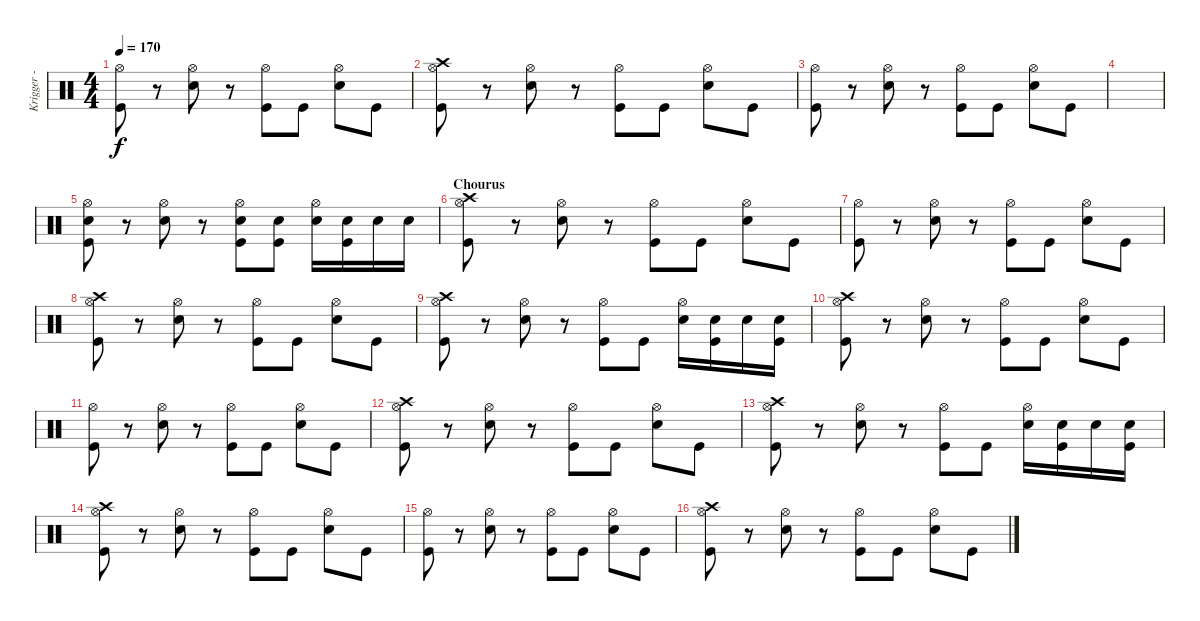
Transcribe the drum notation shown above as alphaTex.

\track ("Krigger - Drums" "Krigger - ") {instrument percussion}
\staff {score}
\articulation defaults
\ts (4 4)
\tempo 170
\clef neutral
\ks c
("Hi-Hat (open)" "Kick (hit)").8{dy f} r.8 ("Hi-Hat (open)" "Snare (hit) 2").8 r.8 ("Hi-Hat (open)" "Kick (hit)").8 "Kick (hit)".8 ("Hi-Hat (open)" "Snare (hit) 2").8 "Kick (hit)".8 |
("Hi-Hat (open)" "Crash high (hit)" "Kick (hit)").8 r.8 ("Hi-Hat (open)" "Snare (hit) 2").8 r.8 ("Hi-Hat (open)" "Kick (hit)").8 "Kick (hit)".8 ("Hi-Hat (open)" "Snare (hit) 2").8 "Kick (hit)".8 |
("Hi-Hat (open)" "Kick (hit)").8 r.8 ("Hi-Hat (open)" "Snare (hit) 2").8 r.8 ("Hi-Hat (open)" "Kick (hit)").8 "Kick (hit)".8 ("Hi-Hat (open)" "Snare (hit) 2").8 "Kick (hit)".8 |
|
("Hi-Hat (open)" "Snare (hit) 2" "Kick (hit)").8 r.8 ("Hi-Hat (open)" "Snare (hit) 2").8 r.8 ("Hi-Hat (open)" "Snare (hit) 2" "Kick (hit)").8 ("Snare (hit) 2" "Kick (hit)").8 ("Hi-Hat (open)" "Snare (hit) 2").16 ("Snare (hit) 2" "Kick (hit)").16 "Snare (hit) 2".16 "Snare (hit) 2".16 |
\section ("" "Chourus")
("Hi-Hat (open)" "Crash high (hit)" "Kick (hit)").8 r.8 ("Hi-Hat (open)" "Snare (hit) 2").8 r.8 ("Hi-Hat (open)" "Kick (hit)").8 "Kick (hit)".8 ("Hi-Hat (open)" "Snare (hit) 2").8 "Kick (hit)".8 |
("Hi-Hat (open)" "Kick (hit)").8 r.8 ("Hi-Hat (open)" "Snare (hit) 2").8 r.8 ("Hi-Hat (open)" "Kick (hit)").8 "Kick (hit)".8 ("Hi-Hat (open)" "Snare (hit) 2").8 "Kick (hit)".8 |
("Hi-Hat (open)" "Crash high (hit)" "Kick (hit)").8 r.8 ("Hi-Hat (open)" "Snare (hit) 2").8 r.8 ("Hi-Hat (open)" "Kick (hit)").8 "Kick (hit)".8 ("Hi-Hat (open)" "Snare (hit) 2").8 "Kick (hit)".8 |
("Hi-Hat (open)" "Crash high (hit)" "Kick (hit)").8 r.8 ("Hi-Hat (open)" "Snare (hit) 2").8 r.8 ("Hi-Hat (open)" "Kick (hit)").8 "Kick (hit)".8 ("Hi-Hat (open)" "Snare (hit) 2").16 ("Snare (hit) 2" "Kick (hit)").16 "Snare (hit) 2".16 ("Snare (hit) 2" "Kick (hit)").16 |
("Hi-Hat (open)" "Crash high (hit)" "Kick (hit)").8 r.8 ("Hi-Hat (open)" "Snare (hit) 2").8 r.8 ("Hi-Hat (open)" "Kick (hit)").8 "Kick (hit)".8 ("Hi-Hat (open)" "Snare (hit) 2").8 "Kick (hit)".8 |
("Hi-Hat (open)" "Kick (hit)").8 r.8 ("Hi-Hat (open)" "Snare (hit) 2").8 r.8 ("Hi-Hat (open)" "Kick (hit)").8 "Kick (hit)".8 ("Hi-Hat (open)" "Snare (hit) 2").8 "Kick (hit)".8 |
("Hi-Hat (open)" "Crash high (hit)" "Kick (hit)").8 r.8 ("Hi-Hat (open)" "Snare (hit) 2").8 r.8 ("Hi-Hat (open)" "Kick (hit)").8 "Kick (hit)".8 ("Hi-Hat (open)" "Snare (hit) 2").8 "Kick (hit)".8 |
("Hi-Hat (open)" "Crash high (hit)" "Kick (hit)").8 r.8 ("Hi-Hat (open)" "Snare (hit) 2").8 r.8 ("Hi-Hat (open)" "Kick (hit)").8 "Kick (hit)".8 ("Hi-Hat (open)" "Snare (hit) 2").16 ("Snare (hit) 2" "Kick (hit)").16 "Snare (hit) 2".16 ("Snare (hit) 2" "Kick (hit)").16 |
("Hi-Hat (open)" "Crash high (hit)" "Kick (hit)").8 r.8 ("Hi-Hat (open)" "Snare (hit) 2").8 r.8 ("Hi-Hat (open)" "Kick (hit)").8 "Kick (hit)".8 ("Hi-Hat (open)" "Snare (hit) 2").8 "Kick (hit)".8 |
("Hi-Hat (open)" "Kick (hit)").8 r.8 ("Hi-Hat (open)" "Snare (hit) 2").8 r.8 ("Hi-Hat (open)" "Kick (hit)").8 "Kick (hit)".8 ("Hi-Hat (open)" "Snare (hit) 2").8 "Kick (hit)".8 |
("Hi-Hat (open)" "Crash high (hit)" "Kick (hit)").8 r.8 ("Hi-Hat (open)" "Snare (hit) 2").8 r.8 ("Hi-Hat (open)" "Kick (hit)").8 "Kick (hit)".8 ("Hi-Hat (open)" "Snare (hit) 2").8 "Kick (hit)".8
